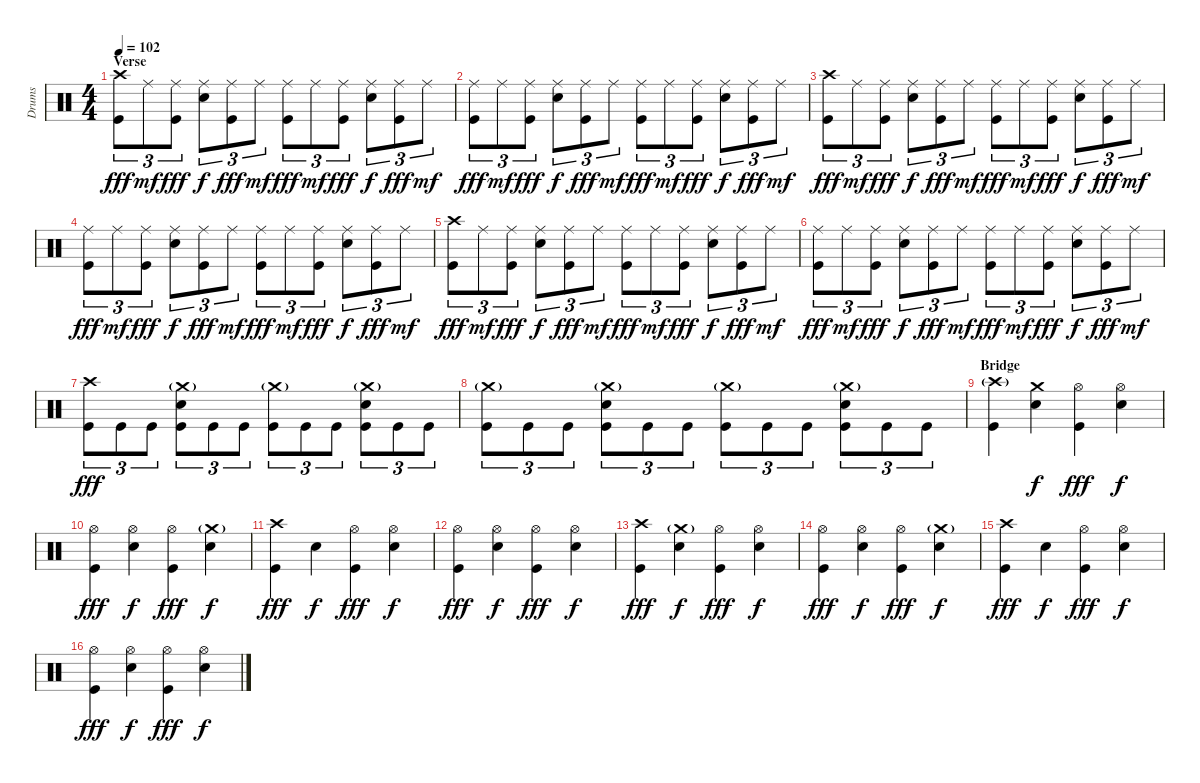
\track ("Drums" "Drums") {instrument percussion}
\staff {score}
\articulation defaults
\ts (4 4)
\section ("" "Verse")
\tempo 102
\clef neutral
\ks c
("Crash high (hit)" "Kick (hit)").8{tu (3 2) dy fff} "Ride (middle)".8{tu (3 2) dy mf} ("Ride (middle)" "Kick (hit)").8{tu (3 2) dy fff} ("Ride (middle)" "Snare (hit) 2").8{tu (3 2) dy f} ("Ride (middle)" "Kick (hit)").8{tu (3 2) dy fff} "Ride (middle)".8{tu (3 2) dy mf} ("Ride (middle)" "Kick (hit)").8{tu (3 2) dy fff} "Ride (middle)".8{tu (3 2) dy mf} ("Ride (middle)" "Kick (hit)").8{tu (3 2) dy fff} ("Ride (middle)" "Snare (hit) 2").8{tu (3 2) dy f} ("Ride (middle)" "Kick (hit)").8{tu (3 2) dy fff} "Ride (middle)".8{tu (3 2) dy mf} |
("Ride (middle)" "Kick (hit)").8{tu (3 2) dy fff} "Ride (middle)".8{tu (3 2) dy mf} ("Ride (middle)" "Kick (hit)").8{tu (3 2) dy fff} ("Ride (middle)" "Snare (hit) 2").8{tu (3 2) dy f} ("Ride (middle)" "Kick (hit)").8{tu (3 2) dy fff} "Ride (middle)".8{tu (3 2) dy mf} ("Ride (middle)" "Kick (hit)").8{tu (3 2) dy fff} "Ride (middle)".8{tu (3 2) dy mf} ("Ride (middle)" "Kick (hit)").8{tu (3 2) dy fff} ("Ride (middle)" "Snare (hit) 2").8{tu (3 2) dy f} ("Ride (middle)" "Kick (hit)").8{tu (3 2) dy fff} "Ride (middle)".8{tu (3 2) dy mf} |
("Crash high (hit)" "Kick (hit)").8{tu (3 2) dy fff} "Ride (middle)".8{tu (3 2) dy mf} ("Ride (middle)" "Kick (hit)").8{tu (3 2) dy fff} ("Ride (middle)" "Snare (hit) 2").8{tu (3 2) dy f} ("Ride (middle)" "Kick (hit)").8{tu (3 2) dy fff} "Ride (middle)".8{tu (3 2) dy mf} ("Ride (middle)" "Kick (hit)").8{tu (3 2) dy fff} "Ride (middle)".8{tu (3 2) dy mf} ("Ride (middle)" "Kick (hit)").8{tu (3 2) dy fff} ("Ride (middle)" "Snare (hit) 2").8{tu (3 2) dy f} ("Ride (middle)" "Kick (hit)").8{tu (3 2) dy fff} "Ride (middle)".8{tu (3 2) dy mf} |
("Ride (middle)" "Kick (hit)").8{tu (3 2) dy fff} "Ride (middle)".8{tu (3 2) dy mf} ("Ride (middle)" "Kick (hit)").8{tu (3 2) dy fff} ("Ride (middle)" "Snare (hit) 2").8{tu (3 2) dy f} ("Ride (middle)" "Kick (hit)").8{tu (3 2) dy fff} "Ride (middle)".8{tu (3 2) dy mf} ("Ride (middle)" "Kick (hit)").8{tu (3 2) dy fff} "Ride (middle)".8{tu (3 2) dy mf} ("Ride (middle)" "Kick (hit)").8{tu (3 2) dy fff} ("Ride (middle)" "Snare (hit) 2").8{tu (3 2) dy f} ("Ride (middle)" "Kick (hit)").8{tu (3 2) dy fff} "Ride (middle)".8{tu (3 2) dy mf} |
("Crash high (hit)" "Kick (hit)").8{tu (3 2) dy fff} "Ride (middle)".8{tu (3 2) dy mf} ("Ride (middle)" "Kick (hit)").8{tu (3 2) dy fff} ("Ride (middle)" "Snare (hit) 2").8{tu (3 2) dy f} ("Ride (middle)" "Kick (hit)").8{tu (3 2) dy fff} "Ride (middle)".8{tu (3 2) dy mf} ("Ride (middle)" "Kick (hit)").8{tu (3 2) dy fff} "Ride (middle)".8{tu (3 2) dy mf} ("Ride (middle)" "Kick (hit)").8{tu (3 2) dy fff} ("Ride (middle)" "Snare (hit) 2").8{tu (3 2) dy f} ("Ride (middle)" "Kick (hit)").8{tu (3 2) dy fff} "Ride (middle)".8{tu (3 2) dy mf} |
("Ride (middle)" "Kick (hit)").8{tu (3 2) dy fff} "Ride (middle)".8{tu (3 2) dy mf} ("Ride (middle)" "Kick (hit)").8{tu (3 2) dy fff} ("Ride (middle)" "Snare (hit) 2").8{tu (3 2) dy f} ("Ride (middle)" "Kick (hit)").8{tu (3 2) dy fff} "Ride (middle)".8{tu (3 2) dy mf} ("Ride (middle)" "Kick (hit)").8{tu (3 2) dy fff} "Ride (middle)".8{tu (3 2) dy mf} ("Ride (middle)" "Kick (hit)").8{tu (3 2) dy fff} ("Ride (middle)" "Snare (hit) 2").8{tu (3 2) dy f} ("Ride (middle)" "Kick (hit)").8{tu (3 2) dy fff} "Ride (middle)".8{tu (3 2) dy mf} |
("Crash high (hit)" "Kick (hit)").8{tu (3 2) dy fff} "Kick (hit)".8{tu (3 2)} "Kick (hit)".8{tu (3 2)} ("Crash medium (hit)"{g} "Snare (hit) 2" "Kick (hit)").8{tu (3 2)} "Kick (hit)".8{tu (3 2)} "Kick (hit)".8{tu (3 2)} ("Crash medium (hit)"{g} "Kick (hit)").8{tu (3 2)} "Kick (hit)".8{tu (3 2)} "Kick (hit)".8{tu (3 2)} ("Crash medium (hit)"{g} "Snare (hit) 2" "Kick (hit)").8{tu (3 2)} "Kick (hit)".8{tu (3 2)} "Kick (hit)".8{tu (3 2)} |
("Crash medium (hit)"{g} "Kick (hit)").8{tu (3 2)} "Kick (hit)".8{tu (3 2)} "Kick (hit)".8{tu (3 2)} ("Crash medium (hit)"{g} "Snare (hit) 2" "Kick (hit)").8{tu (3 2)} "Kick (hit)".8{tu (3 2)} "Kick (hit)".8{tu (3 2)} ("Crash medium (hit)"{g} "Kick (hit)").8{tu (3 2)} "Kick (hit)".8{tu (3 2)} "Kick (hit)".8{tu (3 2)} ("Crash medium (hit)"{g} "Snare (hit) 2" "Kick (hit)").8{tu (3 2)} "Kick (hit)".8{tu (3 2)} "Kick (hit)".8{tu (3 2)} |
\section ("" "Bridge")
("Crash high (hit)"{g} "Kick (hit)").4 ("Crash medium (hit)" "Snare (hit) 2").4{dy f} ("Hi-Hat (open)" "Kick (hit)").4{dy fff} ("Hi-Hat (open)" "Snare (hit) 2").4{dy f} |
("Hi-Hat (open)" "Kick (hit)").4{dy fff} ("Hi-Hat (open)" "Snare (hit) 2").4{dy f} ("Hi-Hat (open)" "Kick (hit)").4{dy fff} ("Crash medium (hit)"{g} "Snare (hit) 2").4{dy f} |
("Crash high (hit)" "Kick (hit)").4{dy fff} "Snare (hit) 2".4{dy f} ("Hi-Hat (open)" "Kick (hit)").4{dy fff} ("Hi-Hat (open)" "Snare (hit) 2").4{dy f} |
("Hi-Hat (open)" "Kick (hit)").4{dy fff} ("Hi-Hat (open)" "Snare (hit) 2").4{dy f} ("Hi-Hat (open)" "Kick (hit)").4{dy fff} ("Hi-Hat (open)" "Snare (hit) 2").4{dy f} |
("Crash high (hit)" "Kick (hit)").4{dy fff} ("Crash medium (hit)"{g} "Snare (hit) 2").4{dy f} ("Hi-Hat (open)" "Kick (hit)").4{dy fff} ("Hi-Hat (open)" "Snare (hit) 2").4{dy f} |
("Hi-Hat (open)" "Kick (hit)").4{dy fff} ("Hi-Hat (open)" "Snare (hit) 2").4{dy f} ("Hi-Hat (open)" "Kick (hit)").4{dy fff} ("Crash medium (hit)"{g} "Snare (hit) 2").4{dy f} |
("Crash high (hit)" "Kick (hit)").4{dy fff} "Snare (hit) 2".4{dy f} ("Hi-Hat (open)" "Kick (hit)").4{dy fff} ("Hi-Hat (open)" "Snare (hit) 2").4{dy f} |
("Hi-Hat (open)" "Kick (hit)").4{dy fff} ("Hi-Hat (open)" "Snare (hit) 2").4{dy f} ("Hi-Hat (open)" "Kick (hit)").4{dy fff} ("Hi-Hat (open)" "Snare (hit) 2").4{dy f}
